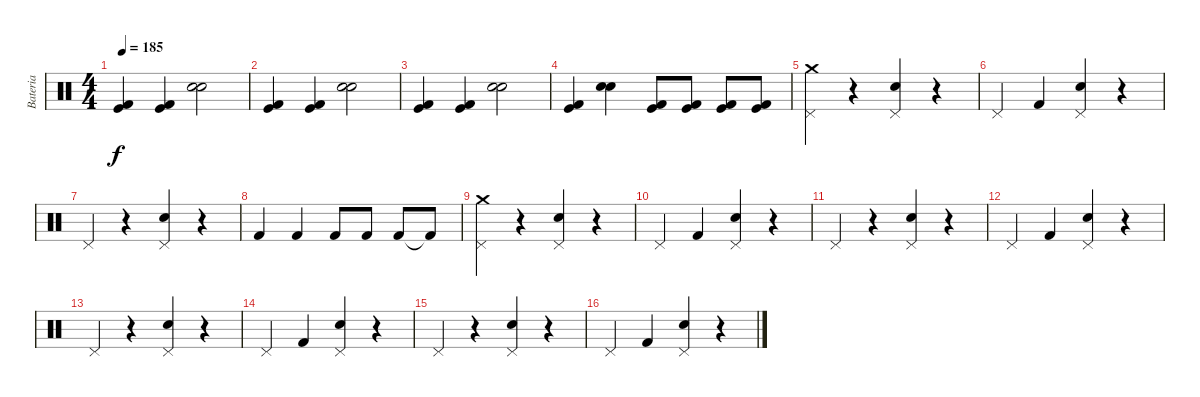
\track ("Bateria" "Bateria") {instrument percussion}
\staff {score}
\articulation defaults
\ts (4 4)
\tempo 185
\clef neutral
\ks c
("Kick (hit) 2" "Kick (hit)").4{dy f} ("Kick (hit) 2" "Kick (hit)").4 ("Electric Snare (hit)" "Snare (hit) 2").2 |
("Kick (hit) 2" "Kick (hit)").4 ("Kick (hit) 2" "Kick (hit)").4 ("Electric Snare (hit)" "Snare (hit) 2").2 |
("Kick (hit) 2" "Kick (hit)").4 ("Kick (hit) 2" "Kick (hit)").4 ("Electric Snare (hit)" "Snare (hit) 2").2 |
("Kick (hit)" "Kick (hit) 2").4 ("Electric Snare (hit)" "Snare (hit) 2").4 ("Kick (hit)" "Kick (hit) 2").8 ("Kick (hit)" "Kick (hit) 2").8 ("Kick (hit)" "Kick (hit) 2").8 ("Kick (hit)" "Kick (hit) 2").8 |
("Pedal Hi-Hat (hit)" "Crash medium (hit)").4 r.4 ("Pedal Hi-Hat (hit)" "Electric Snare (hit)").4 r.4 |
"Pedal Hi-Hat (hit)".4 "Kick (hit) 2".4 ("Pedal Hi-Hat (hit)" "Electric Snare (hit)").4 r.4 |
"Pedal Hi-Hat (hit)".4 r.4 ("Pedal Hi-Hat (hit)" "Electric Snare (hit)").4 r.4 |
"Kick (hit) 2".4 "Kick (hit) 2".4 "Kick (hit) 2".8 "Kick (hit) 2".8 "Kick (hit) 2".8 "Kick (hit) 2"{t}.8 |
("Pedal Hi-Hat (hit)" "Crash medium (hit)").4 r.4 ("Pedal Hi-Hat (hit)" "Electric Snare (hit)").4 r.4 |
"Pedal Hi-Hat (hit)".4 "Kick (hit) 2".4 ("Pedal Hi-Hat (hit)" "Electric Snare (hit)").4 r.4 |
"Pedal Hi-Hat (hit)".4 r.4 ("Pedal Hi-Hat (hit)" "Electric Snare (hit)").4 r.4 |
"Pedal Hi-Hat (hit)".4 "Kick (hit) 2".4 ("Pedal Hi-Hat (hit)" "Electric Snare (hit)").4 r.4 |
"Pedal Hi-Hat (hit)".4 r.4 ("Pedal Hi-Hat (hit)" "Electric Snare (hit)").4 r.4 |
"Pedal Hi-Hat (hit)".4 "Kick (hit) 2".4 ("Pedal Hi-Hat (hit)" "Electric Snare (hit)").4 r.4 |
"Pedal Hi-Hat (hit)".4 r.4 ("Pedal Hi-Hat (hit)" "Electric Snare (hit)").4 r.4 |
"Pedal Hi-Hat (hit)".4 "Kick (hit) 2".4 ("Pedal Hi-Hat (hit)" "Electric Snare (hit)").4 r.4
